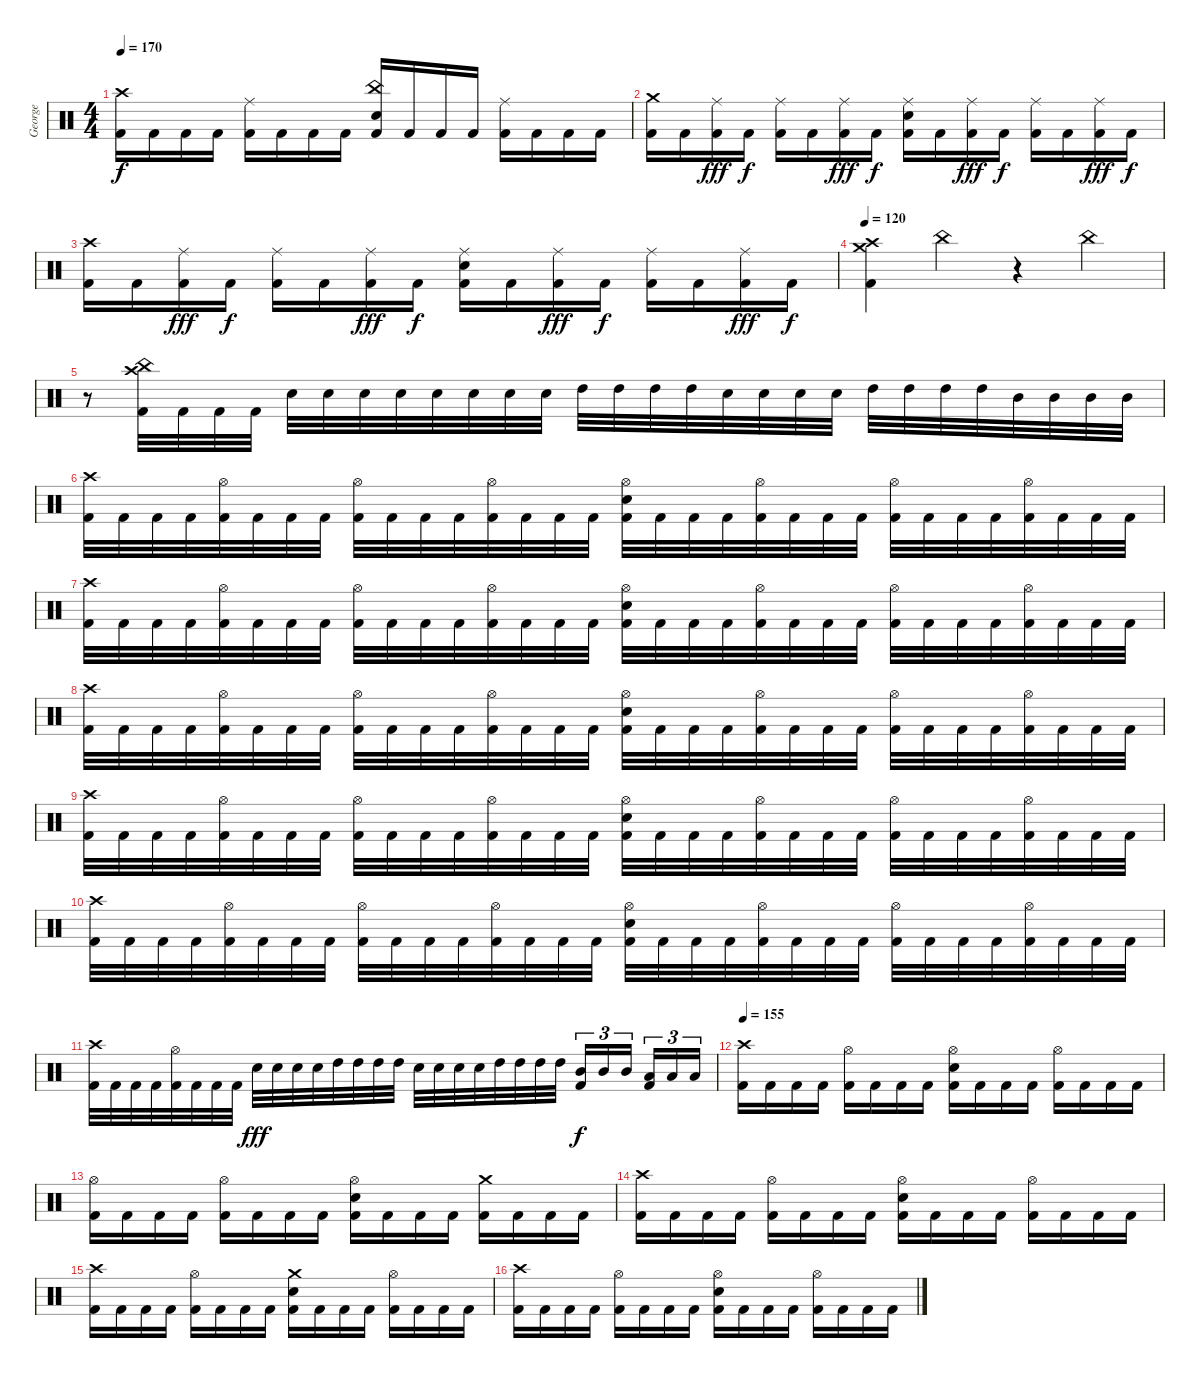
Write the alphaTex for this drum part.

\track ("George" "George") {instrument percussion}
\staff {score}
\articulation defaults
\ts (4 4)
\tempo 170
\clef neutral
\ks c
("Crash high (hit)" "Kick (hit) 2").16{dy f} "Kick (hit) 2".16 "Kick (hit) 2".16 "Kick (hit) 2".16 ("Ride (middle)" "Kick (hit) 2").16 "Kick (hit) 2".16 "Kick (hit) 2".16 "Kick (hit) 2".16 ("China (hit)" "Snare (hit) 2" "Kick (hit) 2").16 "Kick (hit) 2".16 "Kick (hit) 2".16 "Kick (hit) 2".16 ("Ride (middle)" "Kick (hit) 2").16 "Kick (hit) 2".16 "Kick (hit) 2".16 "Kick (hit) 2".16 |
("Crash medium (hit)" "Kick (hit) 2").16 "Kick (hit) 2".16 ("Ride (middle)" "Kick (hit) 2").16{dy fff} "Kick (hit) 2".16{dy f} ("Ride (middle)" "Kick (hit) 2").16 "Kick (hit) 2".16 ("Ride (middle)" "Kick (hit) 2").16{dy fff} "Kick (hit) 2".16{dy f} ("Ride (middle)" "Snare (hit) 2" "Kick (hit) 2").16 "Kick (hit) 2".16 ("Ride (middle)" "Kick (hit) 2").16{dy fff} "Kick (hit) 2".16{dy f} ("Ride (middle)" "Kick (hit) 2").16 "Kick (hit) 2".16 ("Ride (middle)" "Kick (hit) 2").16{dy fff} "Kick (hit) 2".16{dy f} |
("Crash high (hit)" "Kick (hit) 2").16 "Kick (hit) 2".16 ("Ride (middle)" "Kick (hit) 2").16{dy fff} "Kick (hit) 2".16{dy f} ("Ride (middle)" "Kick (hit) 2").16 "Kick (hit) 2".16 ("Ride (middle)" "Kick (hit) 2").16{dy fff} "Kick (hit) 2".16{dy f} ("Ride (middle)" "Snare (hit) 2" "Kick (hit) 2").16 "Kick (hit) 2".16 ("Ride (middle)" "Kick (hit) 2").16{dy fff} "Kick (hit) 2".16{dy f} ("Ride (middle)" "Kick (hit) 2").16 "Kick (hit) 2".16 ("Ride (middle)" "Kick (hit) 2").16{dy fff} "Kick (hit) 2".16{dy f} |
\tempo 120
("Crash medium (hit)" "Crash high (hit)" "Kick (hit) 2").4 "China (hit)".4 r.4 "China (hit)".4 |
r.8 ("Crash high (hit)" "China (hit)" "Kick (hit) 2").32 "Kick (hit) 2".32 "Kick (hit) 2".32 "Kick (hit) 2".32 "Snare (hit) 2".32 "Snare (hit) 2".32 "Snare (hit) 2".32 "Snare (hit) 2".32 "Snare (hit) 2".32 "Snare (hit) 2".32 "Snare (hit) 2".32 "Snare (hit) 2".32 "High Tom (hit)".32 "High Tom (hit)".32 "High Tom (hit)".32 "High Tom (hit)".32 "Snare (hit) 2".32 "Snare (hit) 2".32 "Snare (hit) 2".32 "Snare (hit) 2".32 "High Tom (hit)".32 "High Tom (hit)".32 "High Tom (hit)".32 "High Tom (hit)".32 "Mid Tom (hit)".32 "Mid Tom (hit)".32 "Mid Tom (hit)".32 "Mid Tom (hit)".32 |
("Crash high (hit)" "Kick (hit) 2").32 "Kick (hit) 2".32 "Kick (hit) 2".32 "Kick (hit) 2".32 ("Hi-Hat (open)" "Kick (hit) 2").32 "Kick (hit) 2".32 "Kick (hit) 2".32 "Kick (hit) 2".32 ("Hi-Hat (open)" "Kick (hit) 2").32 "Kick (hit) 2".32 "Kick (hit) 2".32 "Kick (hit) 2".32 ("Hi-Hat (open)" "Kick (hit) 2").32 "Kick (hit) 2".32 "Kick (hit) 2".32 "Kick (hit) 2".32 ("Hi-Hat (open)" "Snare (hit) 2" "Kick (hit) 2").32 "Kick (hit) 2".32 "Kick (hit) 2".32 "Kick (hit) 2".32 ("Hi-Hat (open)" "Kick (hit) 2").32 "Kick (hit) 2".32 "Kick (hit) 2".32 "Kick (hit) 2".32 ("Hi-Hat (open)" "Kick (hit) 2").32 "Kick (hit) 2".32 "Kick (hit) 2".32 "Kick (hit) 2".32 ("Hi-Hat (open)" "Kick (hit) 2").32 "Kick (hit) 2".32 "Kick (hit) 2".32 "Kick (hit) 2".32 |
("Crash high (hit)" "Kick (hit) 2").32 "Kick (hit) 2".32 "Kick (hit) 2".32 "Kick (hit) 2".32 ("Hi-Hat (open)" "Kick (hit) 2").32 "Kick (hit) 2".32 "Kick (hit) 2".32 "Kick (hit) 2".32 ("Hi-Hat (open)" "Kick (hit) 2").32 "Kick (hit) 2".32 "Kick (hit) 2".32 "Kick (hit) 2".32 ("Hi-Hat (open)" "Kick (hit) 2").32 "Kick (hit) 2".32 "Kick (hit) 2".32 "Kick (hit) 2".32 ("Hi-Hat (open)" "Snare (hit) 2" "Kick (hit) 2").32 "Kick (hit) 2".32 "Kick (hit) 2".32 "Kick (hit) 2".32 ("Hi-Hat (open)" "Kick (hit) 2").32 "Kick (hit) 2".32 "Kick (hit) 2".32 "Kick (hit) 2".32 ("Hi-Hat (open)" "Kick (hit) 2").32 "Kick (hit) 2".32 "Kick (hit) 2".32 "Kick (hit) 2".32 ("Hi-Hat (open)" "Kick (hit) 2").32 "Kick (hit) 2".32 "Kick (hit) 2".32 "Kick (hit) 2".32 |
("Crash high (hit)" "Kick (hit) 2").32 "Kick (hit) 2".32 "Kick (hit) 2".32 "Kick (hit) 2".32 ("Hi-Hat (open)" "Kick (hit) 2").32 "Kick (hit) 2".32 "Kick (hit) 2".32 "Kick (hit) 2".32 ("Hi-Hat (open)" "Kick (hit) 2").32 "Kick (hit) 2".32 "Kick (hit) 2".32 "Kick (hit) 2".32 ("Hi-Hat (open)" "Kick (hit) 2").32 "Kick (hit) 2".32 "Kick (hit) 2".32 "Kick (hit) 2".32 ("Hi-Hat (open)" "Snare (hit) 2" "Kick (hit) 2").32 "Kick (hit) 2".32 "Kick (hit) 2".32 "Kick (hit) 2".32 ("Hi-Hat (open)" "Kick (hit) 2").32 "Kick (hit) 2".32 "Kick (hit) 2".32 "Kick (hit) 2".32 ("Hi-Hat (open)" "Kick (hit) 2").32 "Kick (hit) 2".32 "Kick (hit) 2".32 "Kick (hit) 2".32 ("Hi-Hat (open)" "Kick (hit) 2").32 "Kick (hit) 2".32 "Kick (hit) 2".32 "Kick (hit) 2".32 |
("Crash high (hit)" "Kick (hit) 2").32 "Kick (hit) 2".32 "Kick (hit) 2".32 "Kick (hit) 2".32 ("Hi-Hat (open)" "Kick (hit) 2").32 "Kick (hit) 2".32 "Kick (hit) 2".32 "Kick (hit) 2".32 ("Hi-Hat (open)" "Kick (hit) 2").32 "Kick (hit) 2".32 "Kick (hit) 2".32 "Kick (hit) 2".32 ("Hi-Hat (open)" "Kick (hit) 2").32 "Kick (hit) 2".32 "Kick (hit) 2".32 "Kick (hit) 2".32 ("Hi-Hat (open)" "Snare (hit) 2" "Kick (hit) 2").32 "Kick (hit) 2".32 "Kick (hit) 2".32 "Kick (hit) 2".32 ("Hi-Hat (open)" "Kick (hit) 2").32 "Kick (hit) 2".32 "Kick (hit) 2".32 "Kick (hit) 2".32 ("Hi-Hat (open)" "Kick (hit) 2").32 "Kick (hit) 2".32 "Kick (hit) 2".32 "Kick (hit) 2".32 ("Hi-Hat (open)" "Kick (hit) 2").32 "Kick (hit) 2".32 "Kick (hit) 2".32 "Kick (hit) 2".32 |
("Crash high (hit)" "Kick (hit) 2").32 "Kick (hit) 2".32 "Kick (hit) 2".32 "Kick (hit) 2".32 ("Hi-Hat (open)" "Kick (hit) 2").32 "Kick (hit) 2".32 "Kick (hit) 2".32 "Kick (hit) 2".32 ("Hi-Hat (open)" "Kick (hit) 2").32 "Kick (hit) 2".32 "Kick (hit) 2".32 "Kick (hit) 2".32 ("Hi-Hat (open)" "Kick (hit) 2").32 "Kick (hit) 2".32 "Kick (hit) 2".32 "Kick (hit) 2".32 ("Hi-Hat (open)" "Snare (hit) 2" "Kick (hit) 2").32 "Kick (hit) 2".32 "Kick (hit) 2".32 "Kick (hit) 2".32 ("Hi-Hat (open)" "Kick (hit) 2").32 "Kick (hit) 2".32 "Kick (hit) 2".32 "Kick (hit) 2".32 ("Hi-Hat (open)" "Kick (hit) 2").32 "Kick (hit) 2".32 "Kick (hit) 2".32 "Kick (hit) 2".32 ("Hi-Hat (open)" "Kick (hit) 2").32 "Kick (hit) 2".32 "Kick (hit) 2".32 "Kick (hit) 2".32 |
("Crash high (hit)" "Kick (hit) 2").32 "Kick (hit) 2".32 "Kick (hit) 2".32 "Kick (hit) 2".32 ("Hi-Hat (open)" "Kick (hit) 2").32 "Kick (hit) 2".32 "Kick (hit) 2".32 "Kick (hit) 2".32 "Snare (hit) 2".32{dy fff} "Snare (hit) 2".32 "Snare (hit) 2".32 "Snare (hit) 2".32 "High Tom (hit)".32 "High Tom (hit)".32 "High Tom (hit)".32 "High Tom (hit)".32 "Snare (hit) 2".32 "Snare (hit) 2".32 "Snare (hit) 2".32 "Snare (hit) 2".32 "High Tom (hit)".32 "High Tom (hit)".32 "High Tom (hit)".32 "High Tom (hit)".32 ("Mid Tom (hit)" "Kick (hit) 2").16{tu (3 2) dy f} "Mid Tom (hit)".16{tu (3 2)} "Mid Tom (hit)".16{tu (3 2) beam splitsecondary} ("Low Tom (hit)" "Kick (hit) 2").16{tu (3 2)} "Low Tom (hit)".16{tu (3 2)} "Low Tom (hit)".16{tu (3 2)} |
\tempo 155
("Crash high (hit)" "Kick (hit) 2").16 "Kick (hit) 2".16 "Kick (hit) 2".16 "Kick (hit) 2".16 ("Hi-Hat (open)" "Kick (hit) 2").16 "Kick (hit) 2".16 "Kick (hit) 2".16 "Kick (hit) 2".16 ("Hi-Hat (open)" "Snare (hit) 2" "Kick (hit) 2").16 "Kick (hit) 2".16 "Kick (hit) 2".16 "Kick (hit) 2".16 ("Hi-Hat (open)" "Kick (hit) 2").16 "Kick (hit) 2".16 "Kick (hit) 2".16 "Kick (hit) 2".16 |
("Hi-Hat (open)" "Kick (hit) 2").16 "Kick (hit) 2".16 "Kick (hit) 2".16 "Kick (hit) 2".16 ("Hi-Hat (open)" "Kick (hit) 2").16 "Kick (hit) 2".16 "Kick (hit) 2".16 "Kick (hit) 2".16 ("Hi-Hat (open)" "Snare (hit) 2" "Kick (hit) 2").16 "Kick (hit) 2".16 "Kick (hit) 2".16 "Kick (hit) 2".16 ("Crash medium (hit)" "Kick (hit) 2").16 "Kick (hit) 2".16 "Kick (hit) 2".16 "Kick (hit) 2".16 |
("Crash high (hit)" "Kick (hit) 2").16 "Kick (hit) 2".16 "Kick (hit) 2".16 "Kick (hit) 2".16 ("Hi-Hat (open)" "Kick (hit) 2").16 "Kick (hit) 2".16 "Kick (hit) 2".16 "Kick (hit) 2".16 ("Hi-Hat (open)" "Snare (hit) 2" "Kick (hit) 2").16 "Kick (hit) 2".16 "Kick (hit) 2".16 "Kick (hit) 2".16 ("Hi-Hat (open)" "Kick (hit) 2").16 "Kick (hit) 2".16 "Kick (hit) 2".16 "Kick (hit) 2".16 |
("Crash high (hit)" "Kick (hit) 2").16 "Kick (hit) 2".16 "Kick (hit) 2".16 "Kick (hit) 2".16 ("Hi-Hat (open)" "Kick (hit) 2").16 "Kick (hit) 2".16 "Kick (hit) 2".16 "Kick (hit) 2".16 ("Crash medium (hit)" "Snare (hit) 2" "Kick (hit) 2").16 "Kick (hit) 2".16 "Kick (hit) 2".16 "Kick (hit) 2".16 ("Hi-Hat (open)" "Kick (hit) 2").16 "Kick (hit) 2".16 "Kick (hit) 2".16 "Kick (hit) 2".16 |
("Crash high (hit)" "Kick (hit) 2").16 "Kick (hit) 2".16 "Kick (hit) 2".16 "Kick (hit) 2".16 ("Hi-Hat (open)" "Kick (hit) 2").16 "Kick (hit) 2".16 "Kick (hit) 2".16 "Kick (hit) 2".16 ("Hi-Hat (open)" "Snare (hit) 2" "Kick (hit) 2").16 "Kick (hit) 2".16 "Kick (hit) 2".16 "Kick (hit) 2".16 ("Hi-Hat (open)" "Kick (hit) 2").16 "Kick (hit) 2".16 "Kick (hit) 2".16 "Kick (hit) 2".16
